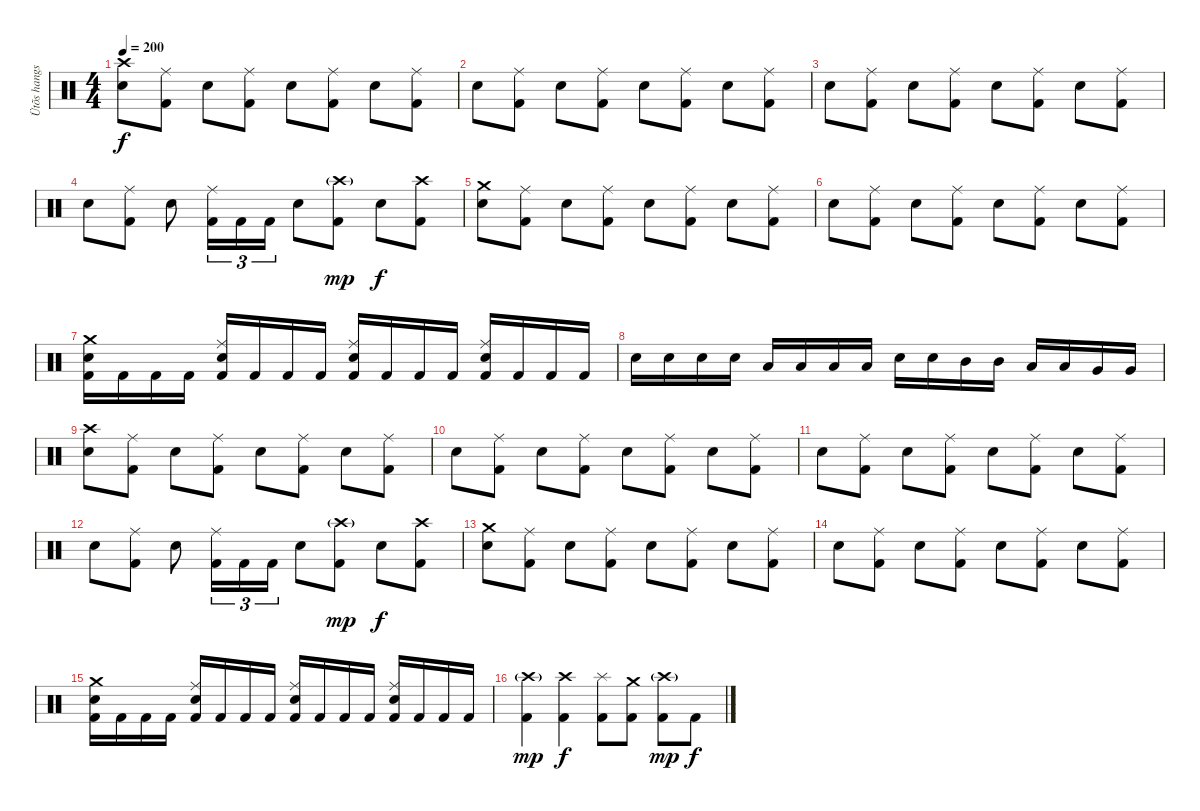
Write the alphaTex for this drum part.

\track ("Ütõs hangszer" "Ütõs hangs") {instrument percussion}
\staff {score}
\articulation defaults
\ts (4 4)
\tempo 200
\clef neutral
\ks c
("Crash high (hit)" "Snare (hit) 2").8{dy f} ("Ride (middle)" "Kick (hit) 2").8 "Snare (hit) 2".8 ("Ride (middle)" "Kick (hit) 2").8 "Snare (hit) 2".8 ("Ride (middle)" "Kick (hit) 2").8 "Snare (hit) 2".8 ("Ride (middle)" "Kick (hit) 2").8 |
"Snare (hit) 2".8 ("Ride (middle)" "Kick (hit) 2").8 "Snare (hit) 2".8 ("Ride (middle)" "Kick (hit) 2").8 "Snare (hit) 2".8 ("Ride (middle)" "Kick (hit) 2").8 "Snare (hit) 2".8 ("Ride (middle)" "Kick (hit) 2").8 |
"Snare (hit) 2".8 ("Ride (middle)" "Kick (hit) 2").8 "Snare (hit) 2".8 ("Ride (middle)" "Kick (hit) 2").8 "Snare (hit) 2".8 ("Ride (middle)" "Kick (hit) 2").8 "Snare (hit) 2".8 ("Ride (middle)" "Kick (hit) 2").8 |
"Snare (hit) 2".8 ("Ride (middle)" "Kick (hit) 2").8 "Snare (hit) 2".8 ("Ride (middle)" "Kick (hit) 2").16{tu (3 2)} "Kick (hit) 2".16{tu (3 2)} "Kick (hit) 2".16{tu (3 2)} "Snare (hit) 2".8 ("Crash high (hit)"{g} "Kick (hit) 2").8{dy mp} "Snare (hit) 2".8{dy f} ("Crash high (hit)" "Kick (hit) 2").8 |
("Crash medium (hit)" "Snare (hit) 2").8 ("Ride (middle)" "Kick (hit) 2").8 "Snare (hit) 2".8 ("Ride (middle)" "Kick (hit) 2").8 "Snare (hit) 2".8 ("Ride (middle)" "Kick (hit) 2").8 "Snare (hit) 2".8 ("Ride (middle)" "Kick (hit) 2").8 |
"Snare (hit) 2".8 ("Ride (middle)" "Kick (hit) 2").8 "Snare (hit) 2".8 ("Ride (middle)" "Kick (hit) 2").8 "Snare (hit) 2".8 ("Ride (middle)" "Kick (hit) 2").8 "Snare (hit) 2".8 ("Ride (middle)" "Kick (hit) 2").8 |
("Crash medium (hit)" "Snare (hit) 2" "Kick (hit) 2").16 "Kick (hit) 2".16 "Kick (hit) 2".16 "Kick (hit) 2".16 ("Ride (middle)" "Snare (hit) 2" "Kick (hit) 2").16 "Kick (hit) 2".16 "Kick (hit) 2".16 "Kick (hit) 2".16 ("Ride (middle)" "Snare (hit) 2" "Kick (hit) 2").16 "Kick (hit) 2".16 "Kick (hit) 2".16 "Kick (hit) 2".16 ("Ride (middle)" "Snare (hit) 2" "Kick (hit) 2").16 "Kick (hit) 2".16 "Kick (hit) 2".16 "Kick (hit) 2".16 |
"Electric Snare (hit)".16 "Electric Snare (hit)".16 "Electric Snare (hit)".16 "Electric Snare (hit)".16 "Low Tom (hit)".16 "Low Tom (hit)".16 "Low Tom (hit)".16 "Low Tom (hit)".16 "Electric Snare (hit)".16 "Electric Snare (hit)".16 "Mid Tom (hit)".16 "Mid Tom (hit)".16 "Low Tom (hit)".16 "Low Tom (hit)".16 "Very Low Tom (hit)".16 "Very Low Tom (hit)".16 |
("Crash high (hit)" "Snare (hit) 2").8 ("Ride (middle)" "Kick (hit) 2").8 "Snare (hit) 2".8 ("Ride (middle)" "Kick (hit) 2").8 "Snare (hit) 2".8 ("Ride (middle)" "Kick (hit) 2").8 "Snare (hit) 2".8 ("Ride (middle)" "Kick (hit) 2").8 |
"Snare (hit) 2".8 ("Ride (middle)" "Kick (hit) 2").8 "Snare (hit) 2".8 ("Ride (middle)" "Kick (hit) 2").8 "Snare (hit) 2".8 ("Ride (middle)" "Kick (hit) 2").8 "Snare (hit) 2".8 ("Ride (middle)" "Kick (hit) 2").8 |
"Snare (hit) 2".8 ("Ride (middle)" "Kick (hit) 2").8 "Snare (hit) 2".8 ("Ride (middle)" "Kick (hit) 2").8 "Snare (hit) 2".8 ("Ride (middle)" "Kick (hit) 2").8 "Snare (hit) 2".8 ("Ride (middle)" "Kick (hit) 2").8 |
"Snare (hit) 2".8 ("Ride (middle)" "Kick (hit) 2").8 "Snare (hit) 2".8 ("Ride (middle)" "Kick (hit) 2").16{tu (3 2)} "Kick (hit) 2".16{tu (3 2)} "Kick (hit) 2".16{tu (3 2)} "Snare (hit) 2".8 ("Crash high (hit)"{g} "Kick (hit) 2").8{dy mp} "Snare (hit) 2".8{dy f} ("Crash high (hit)" "Kick (hit) 2").8 |
("Crash medium (hit)" "Snare (hit) 2").8 ("Ride (middle)" "Kick (hit) 2").8 "Snare (hit) 2".8 ("Ride (middle)" "Kick (hit) 2").8 "Snare (hit) 2".8 ("Ride (middle)" "Kick (hit) 2").8 "Snare (hit) 2".8 ("Ride (middle)" "Kick (hit) 2").8 |
"Snare (hit) 2".8 ("Ride (middle)" "Kick (hit) 2").8 "Snare (hit) 2".8 ("Ride (middle)" "Kick (hit) 2").8 "Snare (hit) 2".8 ("Ride (middle)" "Kick (hit) 2").8 "Snare (hit) 2".8 ("Ride (middle)" "Kick (hit) 2").8 |
("Crash medium (hit)" "Snare (hit) 2" "Kick (hit) 2").16 "Kick (hit) 2".16 "Kick (hit) 2".16 "Kick (hit) 2".16 ("Ride (middle)" "Snare (hit) 2" "Kick (hit) 2").16 "Kick (hit) 2".16 "Kick (hit) 2".16 "Kick (hit) 2".16 ("Ride (middle)" "Snare (hit) 2" "Kick (hit) 2").16 "Kick (hit) 2".16 "Kick (hit) 2".16 "Kick (hit) 2".16 ("Ride (middle)" "Snare (hit) 2" "Kick (hit) 2").16 "Kick (hit) 2".16 "Kick (hit) 2".16 "Kick (hit) 2".16 |
("Crash high (hit)"{g} "Kick (hit) 2").4{dy mp} ("Crash high (hit)" "Kick (hit) 2").4{dy f} ("Splash (hit)" "Kick (hit) 2").8 ("Crash medium (hit)" "Kick (hit) 2").8 ("Crash high (hit)"{g} "Kick (hit) 2").8{dy mp} "Kick (hit) 2".8{dy f}
